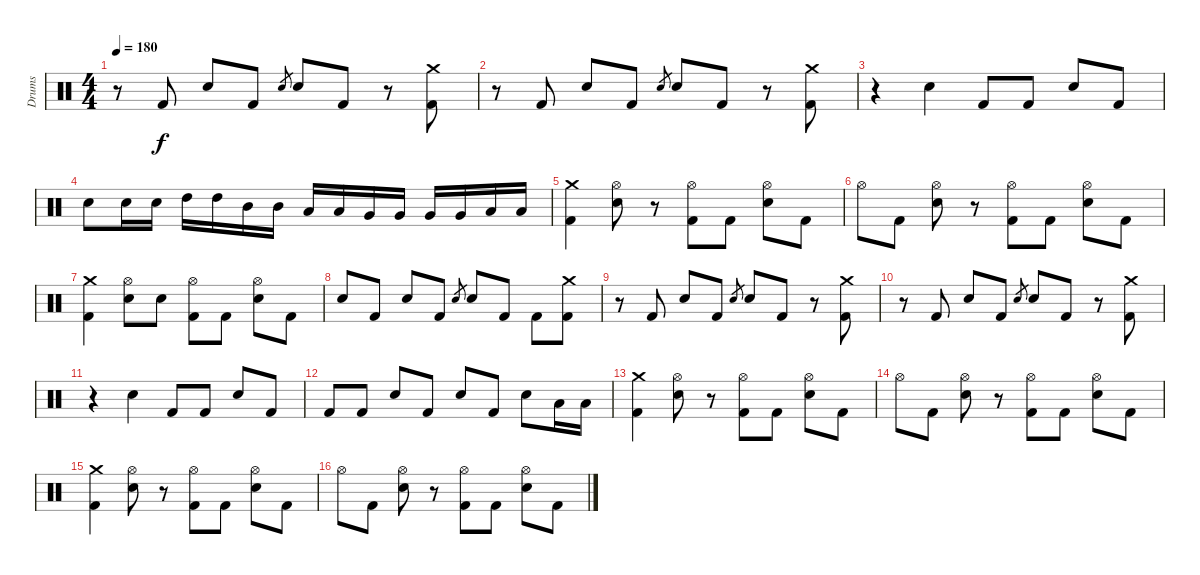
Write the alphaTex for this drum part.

\track ("Drums" "Drums") {instrument percussion}
\staff {score}
\articulation defaults
\ts (4 4)
\tempo 180
\clef neutral
\ks c
r.8{dy f} "Kick (hit) 2".8 "Electric Snare (hit)".8 "Kick (hit) 2".8 "Electric Snare (hit)".8{gr} "Electric Snare (hit)".8 "Kick (hit) 2".8 r.8 ("Crash medium (hit)" "Kick (hit) 2").8 |
r.8 "Kick (hit) 2".8 "Electric Snare (hit)".8 "Kick (hit) 2".8 "Electric Snare (hit)".8{gr} "Electric Snare (hit)".8 "Kick (hit) 2".8 r.8 ("Crash medium (hit)" "Kick (hit) 2").8 |
r.4 "Electric Snare (hit)".4 "Kick (hit) 2".8 "Kick (hit) 2".8 "Electric Snare (hit)".8 "Kick (hit) 2".8 |
"Electric Snare (hit)".8 "Electric Snare (hit)".16 "Electric Snare (hit)".16 "High Tom (hit)".16 "High Tom (hit)".16 "Mid Tom (hit)".16 "Mid Tom (hit)".16 "Low Tom (hit)".16 "Low Tom (hit)".16 "Very Low Tom (hit)".16 "Very Low Tom (hit)".16 "Very Low Tom (hit)".16 "Very Low Tom (hit)".16 "Low Floor Tom (hit)".16 "Low Floor Tom (hit)".16 |
("Crash medium (hit)" "Kick (hit) 2").4 ("Hi-Hat (open)" "Electric Snare (hit)").8 r.8 ("Hi-Hat (open)" "Kick (hit) 2").8 "Kick (hit) 2".8 ("Hi-Hat (open)" "Electric Snare (hit)").8 "Kick (hit) 2".8 |
"Hi-Hat (open)".8 "Kick (hit) 2".8 ("Hi-Hat (open)" "Electric Snare (hit)").8 r.8 ("Hi-Hat (open)" "Kick (hit) 2").8 "Kick (hit) 2".8 ("Hi-Hat (open)" "Electric Snare (hit)").8 "Kick (hit) 2".8 |
("Crash medium (hit)" "Kick (hit) 2").4 ("Hi-Hat (open)" "Electric Snare (hit)").8 "Electric Snare (hit)".8 ("Hi-Hat (open)" "Kick (hit) 2").8 "Kick (hit) 2".8 ("Hi-Hat (open)" "Electric Snare (hit)").8 "Kick (hit) 2".8 |
"Electric Snare (hit)".8 "Kick (hit) 2".8 "Electric Snare (hit)".8 "Kick (hit) 2".8 "Electric Snare (hit)".8{gr} "Electric Snare (hit)".8 "Kick (hit) 2".8 "Kick (hit) 2".8 ("Crash medium (hit)" "Kick (hit) 2").8 |
r.8 "Kick (hit) 2".8 "Electric Snare (hit)".8 "Kick (hit) 2".8 "Electric Snare (hit)".8{gr} "Electric Snare (hit)".8 "Kick (hit) 2".8 r.8 ("Crash medium (hit)" "Kick (hit) 2").8 |
r.8 "Kick (hit) 2".8 "Electric Snare (hit)".8 "Kick (hit) 2".8 "Electric Snare (hit)".8{gr} "Electric Snare (hit)".8 "Kick (hit) 2".8 r.8 ("Crash medium (hit)" "Kick (hit) 2").8 |
r.4 "Electric Snare (hit)".4 "Kick (hit) 2".8 "Kick (hit) 2".8 "Electric Snare (hit)".8 "Kick (hit) 2".8 |
"Kick (hit) 2".8 "Kick (hit) 2".8 "Electric Snare (hit)".8 "Kick (hit) 2".8 "Electric Snare (hit)".8 "Kick (hit) 2".8 "Electric Snare (hit)".8 "Low Tom (hit)".16 "Low Tom (hit)".16 |
("Crash medium (hit)" "Kick (hit) 2").4 ("Hi-Hat (open)" "Electric Snare (hit)").8 r.8 ("Hi-Hat (open)" "Kick (hit) 2").8 "Kick (hit) 2".8 ("Hi-Hat (open)" "Electric Snare (hit)").8 "Kick (hit) 2".8 |
"Hi-Hat (open)".8 "Kick (hit) 2".8 ("Hi-Hat (open)" "Electric Snare (hit)").8 r.8 ("Hi-Hat (open)" "Kick (hit) 2").8 "Kick (hit) 2".8 ("Hi-Hat (open)" "Electric Snare (hit)").8 "Kick (hit) 2".8 |
("Crash medium (hit)" "Kick (hit) 2").4 ("Hi-Hat (open)" "Electric Snare (hit)").8 r.8 ("Hi-Hat (open)" "Kick (hit) 2").8 "Kick (hit) 2".8 ("Hi-Hat (open)" "Electric Snare (hit)").8 "Kick (hit) 2".8 |
"Hi-Hat (open)".8 "Kick (hit) 2".8 ("Hi-Hat (open)" "Electric Snare (hit)").8 r.8 ("Hi-Hat (open)" "Kick (hit) 2").8 "Kick (hit) 2".8 ("Hi-Hat (open)" "Electric Snare (hit)").8 "Kick (hit) 2".8
